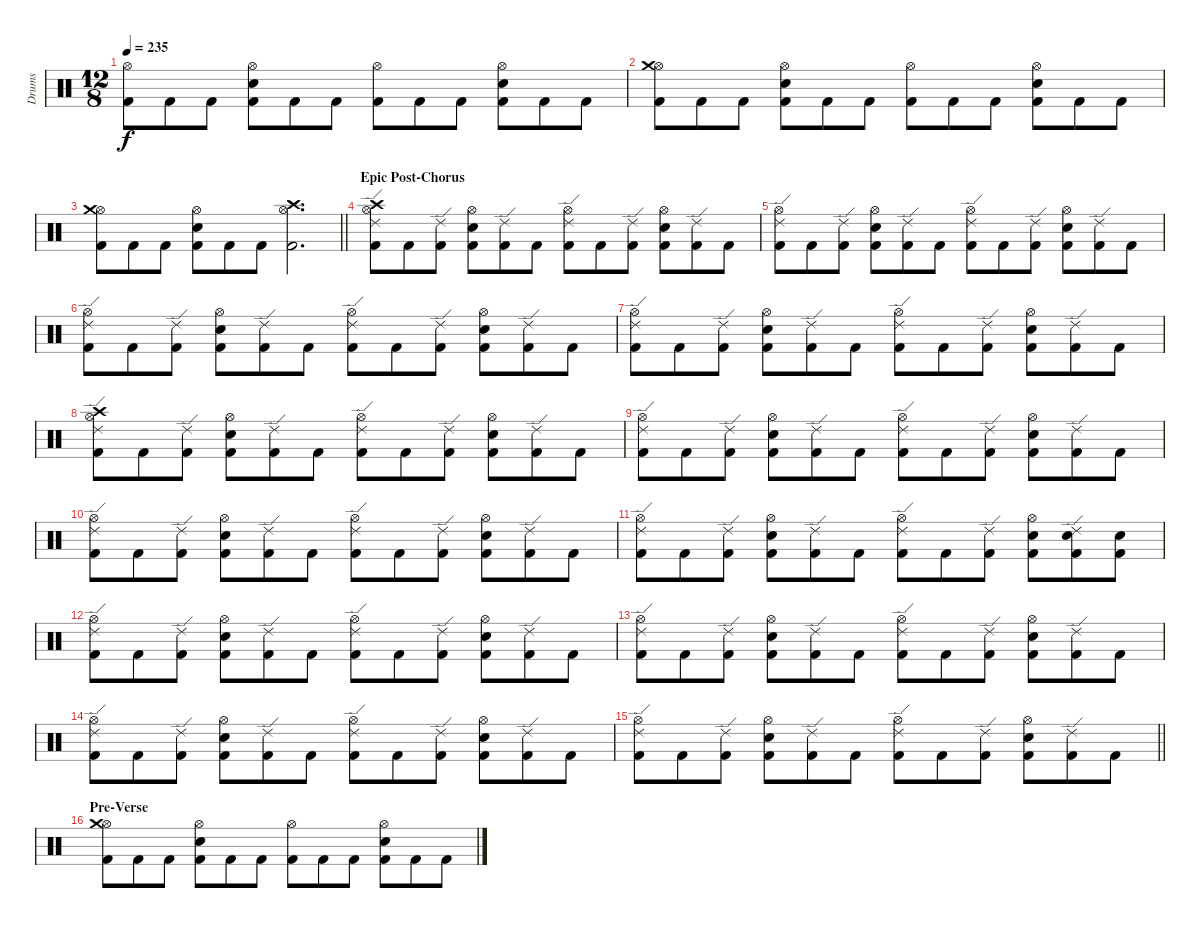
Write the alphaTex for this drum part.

\track ("Drums" "Drums") {instrument percussion}
\staff {score}
\articulation defaults
\ts (12 8)
\tempo 235
\clef neutral
\ks c
("Hi-Hat (open)" "Kick (hit) 2").8{dy f} "Kick (hit) 2".8 "Kick (hit) 2".8 ("Snare (hit) 2" "Kick (hit) 2" "Hi-Hat (open)").8 "Kick (hit) 2".8 "Kick (hit) 2".8 ("Hi-Hat (open)" "Kick (hit) 2").8 "Kick (hit) 2".8 "Kick (hit) 2".8 ("Hi-Hat (open)" "Kick (hit) 2" "Snare (hit) 2").8 "Kick (hit) 2".8 "Kick (hit) 2".8 |
("Hi-Hat (open)" "Kick (hit) 2" "Crash medium (hit)").8 "Kick (hit) 2".8 "Kick (hit) 2".8 ("Kick (hit) 2" "Snare (hit) 2" "Hi-Hat (open)").8 "Kick (hit) 2".8 "Kick (hit) 2".8 ("Kick (hit) 2" "Hi-Hat (open)").8 "Kick (hit) 2".8 "Kick (hit) 2".8 ("Snare (hit) 2" "Kick (hit) 2" "Hi-Hat (open)").8 "Kick (hit) 2".8 "Kick (hit) 2".8 |
\barLineRight lightlight
("Hi-Hat (open)" "Kick (hit) 2" "Crash medium (hit)").8 "Kick (hit) 2".8 "Kick (hit) 2".8 ("Kick (hit) 2" "Snare (hit) 2" "Hi-Hat (open)").8 "Kick (hit) 2".8 "Kick (hit) 2".8 ("Kick (hit) 2" "Hi-Hat (open)" "Crash high (hit)").2{d} |
\section ("" "Epic Post-Chorus")
("Hi-Hat (open)" "Kick (hit) 2" "Crash high (hit)" "Ride (edge) 2").8 "Kick (hit) 2".8 ("Kick (hit) 2" "Ride (edge) 2").8 ("Kick (hit) 2" "Hi-Hat (open)" "Snare (hit) 2").8 ("Ride (edge) 2" "Kick (hit) 2").8 "Kick (hit) 2".8 ("Kick (hit) 2" "Ride (edge) 2" "Hi-Hat (open)").8 "Kick (hit) 2".8 ("Kick (hit) 2" "Ride (edge) 2").8 ("Kick (hit) 2" "Hi-Hat (open)" "Snare (hit) 2").8 ("Ride (edge) 2" "Kick (hit) 2").8 "Kick (hit) 2".8 |
("Kick (hit) 2" "Ride (edge) 2" "Hi-Hat (open)").8 "Kick (hit) 2".8 ("Kick (hit) 2" "Ride (edge) 2").8 ("Kick (hit) 2" "Hi-Hat (open)" "Snare (hit) 2").8 ("Ride (edge) 2" "Kick (hit) 2").8 "Kick (hit) 2".8 ("Kick (hit) 2" "Ride (edge) 2" "Hi-Hat (open)").8 "Kick (hit) 2".8 ("Kick (hit) 2" "Ride (edge) 2").8 ("Kick (hit) 2" "Hi-Hat (open)" "Snare (hit) 2").8 ("Ride (edge) 2" "Kick (hit) 2").8 "Kick (hit) 2".8 |
("Kick (hit) 2" "Ride (edge) 2" "Hi-Hat (open)").8 "Kick (hit) 2".8 ("Kick (hit) 2" "Ride (edge) 2").8 ("Kick (hit) 2" "Hi-Hat (open)" "Snare (hit) 2").8 ("Ride (edge) 2" "Kick (hit) 2").8 "Kick (hit) 2".8 ("Kick (hit) 2" "Ride (edge) 2" "Hi-Hat (open)").8 "Kick (hit) 2".8 ("Kick (hit) 2" "Ride (edge) 2").8 ("Kick (hit) 2" "Hi-Hat (open)" "Snare (hit) 2").8 ("Ride (edge) 2" "Kick (hit) 2").8 "Kick (hit) 2".8 |
("Kick (hit) 2" "Ride (edge) 2" "Hi-Hat (open)").8 "Kick (hit) 2".8 ("Kick (hit) 2" "Ride (edge) 2").8 ("Kick (hit) 2" "Hi-Hat (open)" "Snare (hit) 2").8 ("Ride (edge) 2" "Kick (hit) 2").8 "Kick (hit) 2".8 ("Kick (hit) 2" "Ride (edge) 2" "Hi-Hat (open)").8 "Kick (hit) 2".8 ("Kick (hit) 2" "Ride (edge) 2").8 ("Kick (hit) 2" "Hi-Hat (open)" "Snare (hit) 2").8 ("Ride (edge) 2" "Kick (hit) 2").8 "Kick (hit) 2".8 |
("Kick (hit) 2" "Ride (edge) 2" "Crash high (hit)" "Hi-Hat (open)").8 "Kick (hit) 2".8 ("Ride (edge) 2" "Kick (hit) 2").8 ("Snare (hit) 2" "Kick (hit) 2" "Hi-Hat (open)").8 ("Kick (hit) 2" "Ride (edge) 2").8 "Kick (hit) 2".8 ("Hi-Hat (open)" "Ride (edge) 2" "Kick (hit) 2").8 "Kick (hit) 2".8 ("Ride (edge) 2" "Kick (hit) 2").8 ("Snare (hit) 2" "Kick (hit) 2" "Hi-Hat (open)").8 ("Kick (hit) 2" "Ride (edge) 2").8 "Kick (hit) 2".8 |
("Hi-Hat (open)" "Ride (edge) 2" "Kick (hit) 2").8 "Kick (hit) 2".8 ("Ride (edge) 2" "Kick (hit) 2").8 ("Snare (hit) 2" "Kick (hit) 2" "Hi-Hat (open)").8 ("Kick (hit) 2" "Ride (edge) 2").8 "Kick (hit) 2".8 ("Hi-Hat (open)" "Ride (edge) 2" "Kick (hit) 2").8 "Kick (hit) 2".8 ("Ride (edge) 2" "Kick (hit) 2").8 ("Snare (hit) 2" "Kick (hit) 2" "Hi-Hat (open)").8 ("Kick (hit) 2" "Ride (edge) 2").8 "Kick (hit) 2".8 |
("Hi-Hat (open)" "Ride (edge) 2" "Kick (hit) 2").8 "Kick (hit) 2".8 ("Ride (edge) 2" "Kick (hit) 2").8 ("Snare (hit) 2" "Kick (hit) 2" "Hi-Hat (open)").8 ("Kick (hit) 2" "Ride (edge) 2").8 "Kick (hit) 2".8 ("Hi-Hat (open)" "Ride (edge) 2" "Kick (hit) 2").8 "Kick (hit) 2".8 ("Ride (edge) 2" "Kick (hit) 2").8 ("Snare (hit) 2" "Kick (hit) 2" "Hi-Hat (open)").8 ("Kick (hit) 2" "Ride (edge) 2").8 "Kick (hit) 2".8 |
("Hi-Hat (open)" "Ride (edge) 2" "Kick (hit) 2").8 "Kick (hit) 2".8 ("Ride (edge) 2" "Kick (hit) 2").8 ("Snare (hit) 2" "Kick (hit) 2" "Hi-Hat (open)").8 ("Kick (hit) 2" "Ride (edge) 2").8 "Kick (hit) 2".8 ("Hi-Hat (open)" "Ride (edge) 2" "Kick (hit) 2").8 "Kick (hit) 2".8 ("Ride (edge) 2" "Kick (hit) 2").8 ("Snare (hit) 2" "Kick (hit) 2" "Hi-Hat (open)").8 ("Kick (hit) 2" "Ride (edge) 2" "Snare (hit) 2").8 ("Snare (hit) 2" "Kick (hit) 2").8 |
("Hi-Hat (open)" "Kick (hit) 2" "Ride (edge) 2").8 "Kick (hit) 2".8 ("Ride (edge) 2" "Kick (hit) 2").8 ("Hi-Hat (open)" "Kick (hit) 2" "Snare (hit) 2").8 ("Kick (hit) 2" "Ride (edge) 2").8 "Kick (hit) 2".8 ("Ride (edge) 2" "Hi-Hat (open)" "Kick (hit) 2").8 "Kick (hit) 2".8 ("Ride (edge) 2" "Kick (hit) 2").8 ("Snare (hit) 2" "Kick (hit) 2" "Hi-Hat (open)").8 ("Ride (edge) 2" "Kick (hit) 2").8 "Kick (hit) 2".8 |
("Hi-Hat (open)" "Ride (edge) 2" "Kick (hit) 2").8 "Kick (hit) 2".8 ("Ride (edge) 2" "Kick (hit) 2").8 ("Hi-Hat (open)" "Kick (hit) 2" "Snare (hit) 2").8 ("Kick (hit) 2" "Ride (edge) 2").8 "Kick (hit) 2".8 ("Kick (hit) 2" "Ride (edge) 2" "Hi-Hat (open)").8 "Kick (hit) 2".8 ("Kick (hit) 2" "Ride (edge) 2").8 ("Snare (hit) 2" "Kick (hit) 2" "Hi-Hat (open)").8 ("Kick (hit) 2" "Ride (edge) 2").8 "Kick (hit) 2".8 |
("Hi-Hat (open)" "Kick (hit) 2" "Ride (edge) 2").8 "Kick (hit) 2".8 ("Ride (edge) 2" "Kick (hit) 2").8 ("Hi-Hat (open)" "Kick (hit) 2" "Snare (hit) 2").8 ("Kick (hit) 2" "Ride (edge) 2").8 "Kick (hit) 2".8 ("Ride (edge) 2" "Hi-Hat (open)" "Kick (hit) 2").8 "Kick (hit) 2".8 ("Ride (edge) 2" "Kick (hit) 2").8 ("Snare (hit) 2" "Kick (hit) 2" "Hi-Hat (open)").8 ("Ride (edge) 2" "Kick (hit) 2").8 "Kick (hit) 2".8 |
\barLineRight lightlight
("Hi-Hat (open)" "Ride (edge) 2" "Kick (hit) 2").8 "Kick (hit) 2".8 ("Ride (edge) 2" "Kick (hit) 2").8 ("Hi-Hat (open)" "Kick (hit) 2" "Snare (hit) 2").8 ("Kick (hit) 2" "Ride (edge) 2").8 "Kick (hit) 2".8 ("Kick (hit) 2" "Ride (edge) 2" "Hi-Hat (open)").8 "Kick (hit) 2".8 ("Kick (hit) 2" "Ride (edge) 2").8 ("Snare (hit) 2" "Kick (hit) 2" "Hi-Hat (open)").8 ("Kick (hit) 2" "Ride (edge) 2").8 "Kick (hit) 2".8 |
\section ("" "Pre-Verse")
("Kick (hit) 2" "Hi-Hat (open)" "Crash medium (hit)").8 "Kick (hit) 2".8 "Kick (hit) 2".8 ("Snare (hit) 2" "Hi-Hat (open)" "Kick (hit) 2").8 "Kick (hit) 2".8 "Kick (hit) 2".8 ("Hi-Hat (open)" "Kick (hit) 2").8 "Kick (hit) 2".8 "Kick (hit) 2".8 ("Kick (hit) 2" "Snare (hit) 2" "Hi-Hat (open)").8 "Kick (hit) 2".8 "Kick (hit) 2".8
